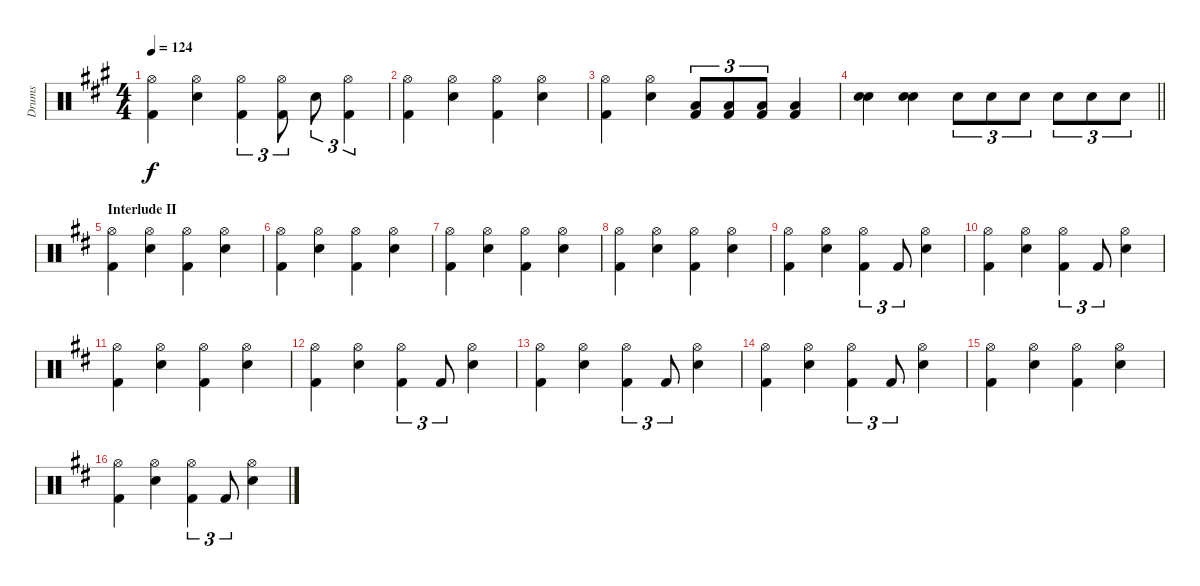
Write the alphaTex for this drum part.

\track ("Drums" "Drums") {instrument percussion}
\staff {score}
\articulation defaults
\ts (4 4)
\tempo 124
\clef neutral
\ks a
("Hi-Hat (open)" "Kick (hit) 2").4{dy f} ("Hi-Hat (open)" "Electric Snare (hit)").4 ("Hi-Hat (open)" "Kick (hit) 2").4{tu (3 2)} ("Hi-Hat (open)" "Kick (hit) 2").8{tu (3 2)} "Electric Snare (hit)".8{tu (3 2)} ("Hi-Hat (open)" "Kick (hit) 2").4{tu (3 2)} |
("Hi-Hat (open)" "Kick (hit) 2").4 ("Hi-Hat (open)" "Electric Snare (hit)").4 ("Hi-Hat (open)" "Kick (hit) 2").4 ("Hi-Hat (open)" "Electric Snare (hit)").4 |
("Hi-Hat (open)" "Kick (hit) 2").4 ("Hi-Hat (open)" "Electric Snare (hit)").4 ("Low Floor Tom (hit)" "Kick (hit) 2").8{tu (3 2)} ("Low Floor Tom (hit)" "Kick (hit) 2").8{tu (3 2)} ("Low Floor Tom (hit)" "Kick (hit) 2").8{tu (3 2)} ("Low Floor Tom (hit)" "Kick (hit) 2").4 |
\barLineRight lightlight
("Electric Snare (hit)" "Snare (hit) 2").4 ("Electric Snare (hit)" "Snare (hit) 2").4 "Electric Snare (hit)".8{tu (3 2)} "Electric Snare (hit)".8{tu (3 2)} "Electric Snare (hit)".8{tu (3 2)} "Electric Snare (hit)".8{tu (3 2)} "Electric Snare (hit)".8{tu (3 2)} "Electric Snare (hit)".8{tu (3 2)} |
\section ("" "Interlude II")
\ks d
("Hi-Hat (open)" "Kick (hit) 2").4 ("Hi-Hat (open)" "Electric Snare (hit)").4 ("Hi-Hat (open)" "Kick (hit) 2").4 ("Hi-Hat (open)" "Electric Snare (hit)").4 |
("Hi-Hat (open)" "Kick (hit) 2").4 ("Hi-Hat (open)" "Electric Snare (hit)").4 ("Hi-Hat (open)" "Kick (hit) 2").4 ("Hi-Hat (open)" "Electric Snare (hit)").4 |
("Hi-Hat (open)" "Kick (hit) 2").4 ("Hi-Hat (open)" "Electric Snare (hit)").4 ("Hi-Hat (open)" "Kick (hit) 2").4 ("Hi-Hat (open)" "Electric Snare (hit)").4 |
("Hi-Hat (open)" "Kick (hit) 2").4 ("Hi-Hat (open)" "Electric Snare (hit)").4 ("Hi-Hat (open)" "Kick (hit) 2").4 ("Hi-Hat (open)" "Electric Snare (hit)").4 |
("Hi-Hat (open)" "Kick (hit) 2").4 ("Hi-Hat (open)" "Electric Snare (hit)").4 ("Hi-Hat (open)" "Kick (hit) 2").4{tu (3 2)} "Kick (hit) 2".8{tu (3 2)} ("Hi-Hat (open)" "Electric Snare (hit)").4 |
("Hi-Hat (open)" "Kick (hit) 2").4 ("Hi-Hat (open)" "Electric Snare (hit)").4 ("Hi-Hat (open)" "Kick (hit) 2").4{tu (3 2)} "Kick (hit) 2".8{tu (3 2)} ("Hi-Hat (open)" "Electric Snare (hit)").4 |
("Hi-Hat (open)" "Kick (hit) 2").4 ("Hi-Hat (open)" "Electric Snare (hit)").4 ("Hi-Hat (open)" "Kick (hit) 2").4 ("Hi-Hat (open)" "Electric Snare (hit)").4 |
("Hi-Hat (open)" "Kick (hit) 2").4 ("Hi-Hat (open)" "Electric Snare (hit)").4 ("Hi-Hat (open)" "Kick (hit) 2").4{tu (3 2)} "Kick (hit) 2".8{tu (3 2)} ("Hi-Hat (open)" "Electric Snare (hit)").4 |
("Hi-Hat (open)" "Kick (hit) 2").4 ("Hi-Hat (open)" "Electric Snare (hit)").4 ("Hi-Hat (open)" "Kick (hit) 2").4{tu (3 2)} "Kick (hit) 2".8{tu (3 2)} ("Hi-Hat (open)" "Electric Snare (hit)").4 |
("Hi-Hat (open)" "Kick (hit) 2").4 ("Hi-Hat (open)" "Electric Snare (hit)").4 ("Hi-Hat (open)" "Kick (hit) 2").4{tu (3 2)} "Kick (hit) 2".8{tu (3 2)} ("Hi-Hat (open)" "Electric Snare (hit)").4 |
("Hi-Hat (open)" "Kick (hit) 2").4 ("Hi-Hat (open)" "Electric Snare (hit)").4 ("Hi-Hat (open)" "Kick (hit) 2").4 ("Hi-Hat (open)" "Electric Snare (hit)").4 |
("Hi-Hat (open)" "Kick (hit) 2").4 ("Hi-Hat (open)" "Electric Snare (hit)").4 ("Hi-Hat (open)" "Kick (hit) 2").4{tu (3 2)} "Kick (hit) 2".8{tu (3 2)} ("Hi-Hat (open)" "Electric Snare (hit)").4
